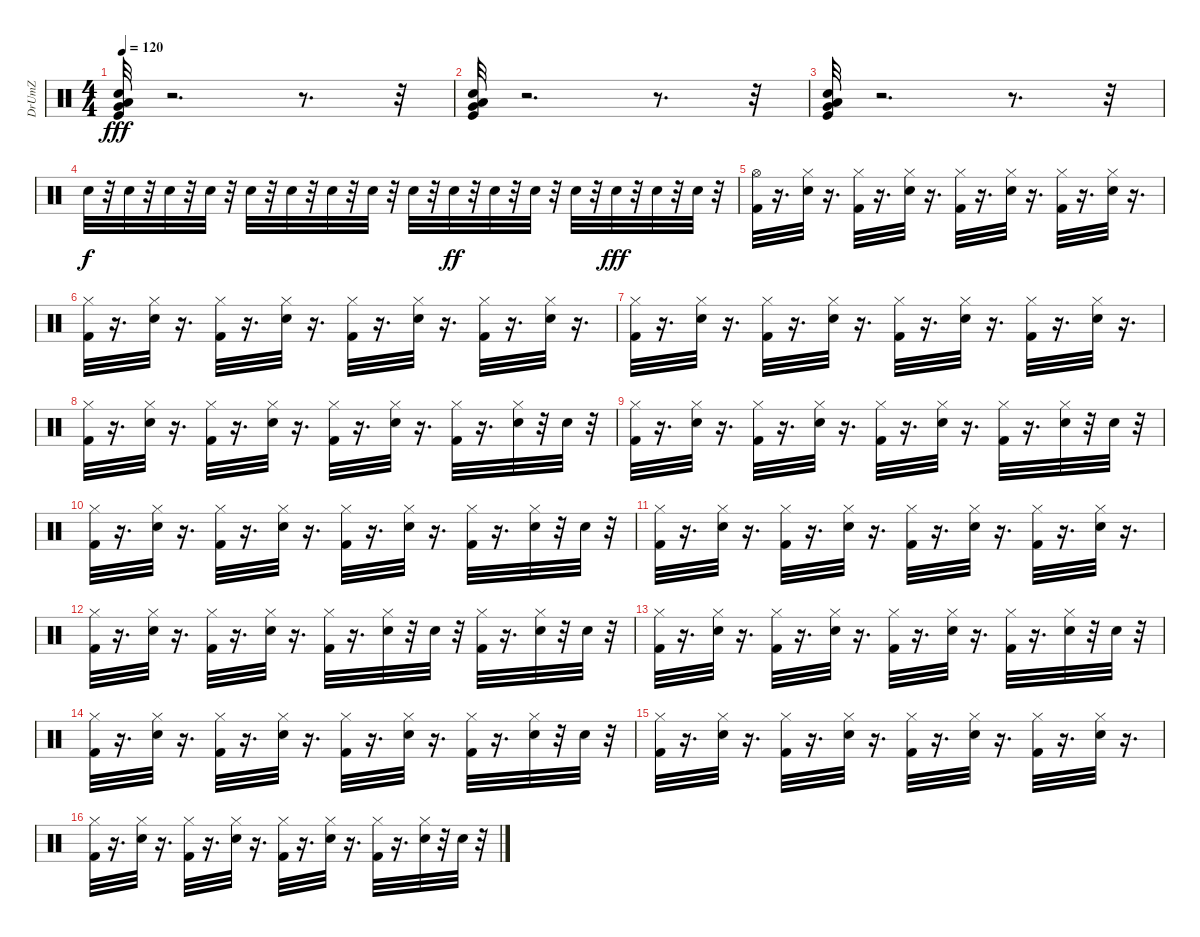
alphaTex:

\track ("DrUmZ" "DrUmZ") {instrument percussion}
\staff {score}
\articulation defaults
\ts (4 4)
\tempo 120
\clef neutral
\ks c
("Snare (hit) 2" "Kick (hit)" "Low Floor Tom (hit)" "Very Low Tom (hit)").32{dy fff} r.2{d} r.8{d} r.32 |
("Kick (hit)" "Snare (hit) 2" "Low Floor Tom (hit)" "Very Low Tom (hit)").32 r.2{d} r.8{d} r.32 |
("Kick (hit)" "Snare (hit) 2" "Low Floor Tom (hit)" "Very Low Tom (hit)").32 r.2{d} r.8{d} r.32 |
"Electric Snare (hit)".32{dy f} r.32 "Electric Snare (hit)".32 r.32 "Electric Snare (hit)".32 r.32 "Electric Snare (hit)".32 r.32 "Electric Snare (hit)".32 r.32 "Electric Snare (hit)".32 r.32 "Electric Snare (hit)".32 r.32 "Electric Snare (hit)".32 r.32 "Electric Snare (hit)".32 r.32 "Electric Snare (hit)".32{dy ff} r.32 "Electric Snare (hit)".32 r.32 "Electric Snare (hit)".32 r.32 "Electric Snare (hit)".32 r.32 "Electric Snare (hit)".32{dy fff} r.32 "Electric Snare (hit)".32 r.32 "Electric Snare (hit)".32 r.32 |
("Kick (hit) 2" "Hi-Hat (open)").32 r.16{d} ("Electric Snare (hit)" "Hi-Hat (closed)").32 r.16{d} ("Kick (hit) 2" "Hi-Hat (closed)").32 r.16{d} ("Electric Snare (hit)" "Hi-Hat (closed)").32 r.16{d} ("Kick (hit) 2" "Hi-Hat (closed)").32 r.16{d} ("Electric Snare (hit)" "Hi-Hat (closed)").32 r.16{d} ("Kick (hit) 2" "Hi-Hat (closed)").32 r.16{d} ("Electric Snare (hit)" "Hi-Hat (closed)").32 r.16{d} |
("Hi-Hat (closed)" "Kick (hit) 2").32 r.16{d} ("Electric Snare (hit)" "Hi-Hat (closed)").32 r.16{d} ("Kick (hit) 2" "Hi-Hat (closed)").32 r.16{d} ("Electric Snare (hit)" "Hi-Hat (closed)").32 r.16{d} ("Hi-Hat (closed)" "Kick (hit) 2").32 r.16{d} ("Electric Snare (hit)" "Hi-Hat (closed)").32 r.16{d} ("Kick (hit) 2" "Hi-Hat (closed)").32 r.16{d} ("Electric Snare (hit)" "Hi-Hat (closed)").32 r.16{d} |
("Kick (hit) 2" "Hi-Hat (closed)").32 r.16{d} ("Electric Snare (hit)" "Hi-Hat (closed)").32 r.16{d} ("Kick (hit) 2" "Hi-Hat (closed)").32 r.16{d} ("Electric Snare (hit)" "Hi-Hat (closed)").32 r.16{d} ("Hi-Hat (closed)" "Kick (hit) 2").32 r.16{d} ("Electric Snare (hit)" "Hi-Hat (closed)").32 r.16{d} ("Kick (hit) 2" "Hi-Hat (closed)").32 r.16{d} ("Electric Snare (hit)" "Hi-Hat (closed)").32 r.16{d} |
("Kick (hit) 2" "Hi-Hat (closed)").32 r.16{d} ("Electric Snare (hit)" "Hi-Hat (closed)").32 r.16{d} ("Kick (hit) 2" "Hi-Hat (closed)").32 r.16{d} ("Electric Snare (hit)" "Hi-Hat (closed)").32 r.16{d} ("Hi-Hat (closed)" "Kick (hit) 2").32 r.16{d} ("Electric Snare (hit)" "Hi-Hat (closed)").32 r.16{d} ("Kick (hit) 2" "Hi-Hat (closed)").32 r.16{d} ("Electric Snare (hit)" "Hi-Hat (closed)").32 r.32 "Electric Snare (hit)".32 r.32 |
("Kick (hit) 2" "Hi-Hat (closed)").32 r.16{d} ("Electric Snare (hit)" "Hi-Hat (closed)").32 r.16{d} ("Kick (hit) 2" "Hi-Hat (closed)").32 r.16{d} ("Electric Snare (hit)" "Hi-Hat (closed)").32 r.16{d} ("Hi-Hat (closed)" "Kick (hit) 2").32 r.16{d} ("Electric Snare (hit)" "Hi-Hat (closed)").32 r.16{d} ("Kick (hit) 2" "Hi-Hat (closed)").32 r.16{d} ("Electric Snare (hit)" "Hi-Hat (closed)").32 r.32 "Electric Snare (hit)".32 r.32 |
("Hi-Hat (closed)" "Kick (hit) 2").32 r.16{d} ("Electric Snare (hit)" "Hi-Hat (closed)").32 r.16{d} ("Kick (hit) 2" "Hi-Hat (closed)").32 r.16{d} ("Electric Snare (hit)" "Hi-Hat (closed)").32 r.16{d} ("Hi-Hat (closed)" "Kick (hit) 2").32 r.16{d} ("Electric Snare (hit)" "Hi-Hat (closed)").32 r.16{d} ("Kick (hit) 2" "Hi-Hat (closed)").32 r.16{d} ("Electric Snare (hit)" "Hi-Hat (closed)").32 r.32 "Electric Snare (hit)".32 r.32 |
("Hi-Hat (closed)" "Kick (hit) 2").32 r.16{d} ("Electric Snare (hit)" "Hi-Hat (closed)").32 r.16{d} ("Kick (hit) 2" "Hi-Hat (closed)").32 r.16{d} ("Electric Snare (hit)" "Hi-Hat (closed)").32 r.16{d} ("Hi-Hat (closed)" "Kick (hit) 2").32 r.16{d} ("Electric Snare (hit)" "Hi-Hat (closed)").32 r.16{d} ("Kick (hit) 2" "Hi-Hat (closed)").32 r.16{d} ("Electric Snare (hit)" "Hi-Hat (closed)").32 r.16{d} |
("Hi-Hat (closed)" "Kick (hit) 2").32 r.16{d} ("Electric Snare (hit)" "Hi-Hat (closed)").32 r.16{d} ("Kick (hit) 2" "Hi-Hat (closed)").32 r.16{d} ("Electric Snare (hit)" "Hi-Hat (closed)").32 r.16{d} ("Hi-Hat (closed)" "Kick (hit) 2").32 r.16{d} ("Electric Snare (hit)" "Hi-Hat (closed)").32 r.32 "Electric Snare (hit)".32 r.32 ("Kick (hit) 2" "Hi-Hat (closed)").32 r.16{d} ("Electric Snare (hit)" "Hi-Hat (closed)").32 r.32 "Electric Snare (hit)".32 r.32 |
("Hi-Hat (closed)" "Kick (hit) 2").32 r.16{d} ("Electric Snare (hit)" "Hi-Hat (closed)").32 r.16{d} ("Kick (hit) 2" "Hi-Hat (closed)").32 r.16{d} ("Electric Snare (hit)" "Hi-Hat (closed)").32 r.16{d} ("Hi-Hat (closed)" "Kick (hit) 2").32 r.16{d} ("Electric Snare (hit)" "Hi-Hat (closed)").32 r.16{d} ("Kick (hit) 2" "Hi-Hat (closed)").32 r.16{d} ("Electric Snare (hit)" "Hi-Hat (closed)").32 r.32 "Electric Snare (hit)".32 r.32 |
("Kick (hit) 2" "Hi-Hat (closed)").32 r.16{d} ("Electric Snare (hit)" "Hi-Hat (closed)").32 r.16{d} ("Kick (hit) 2" "Hi-Hat (closed)").32 r.16{d} ("Electric Snare (hit)" "Hi-Hat (closed)").32 r.16{d} ("Hi-Hat (closed)" "Kick (hit) 2").32 r.16{d} ("Electric Snare (hit)" "Hi-Hat (closed)").32 r.16{d} ("Kick (hit) 2" "Hi-Hat (closed)").32 r.16{d} ("Electric Snare (hit)" "Hi-Hat (closed)").32 r.32 "Electric Snare (hit)".32 r.32 |
("Kick (hit) 2" "Hi-Hat (closed)").32 r.16{d} ("Electric Snare (hit)" "Hi-Hat (closed)").32 r.16{d} ("Kick (hit) 2" "Hi-Hat (closed)").32 r.16{d} ("Electric Snare (hit)" "Hi-Hat (closed)").32 r.16{d} ("Hi-Hat (closed)" "Kick (hit) 2").32 r.16{d} ("Electric Snare (hit)" "Hi-Hat (closed)").32 r.16{d} ("Kick (hit) 2" "Hi-Hat (closed)").32 r.16{d} ("Electric Snare (hit)" "Hi-Hat (closed)").32 r.16{d} |
("Kick (hit) 2" "Hi-Hat (closed)").32 r.16{d} ("Electric Snare (hit)" "Hi-Hat (closed)").32 r.16{d} ("Kick (hit) 2" "Hi-Hat (closed)").32 r.16{d} ("Electric Snare (hit)" "Hi-Hat (closed)").32 r.16{d} ("Hi-Hat (closed)" "Kick (hit) 2").32 r.16{d} ("Electric Snare (hit)" "Hi-Hat (closed)").32 r.16{d} ("Kick (hit) 2" "Hi-Hat (closed)").32 r.16{d} ("Electric Snare (hit)" "Hi-Hat (closed)").32 r.32 "Electric Snare (hit)".32 r.32
